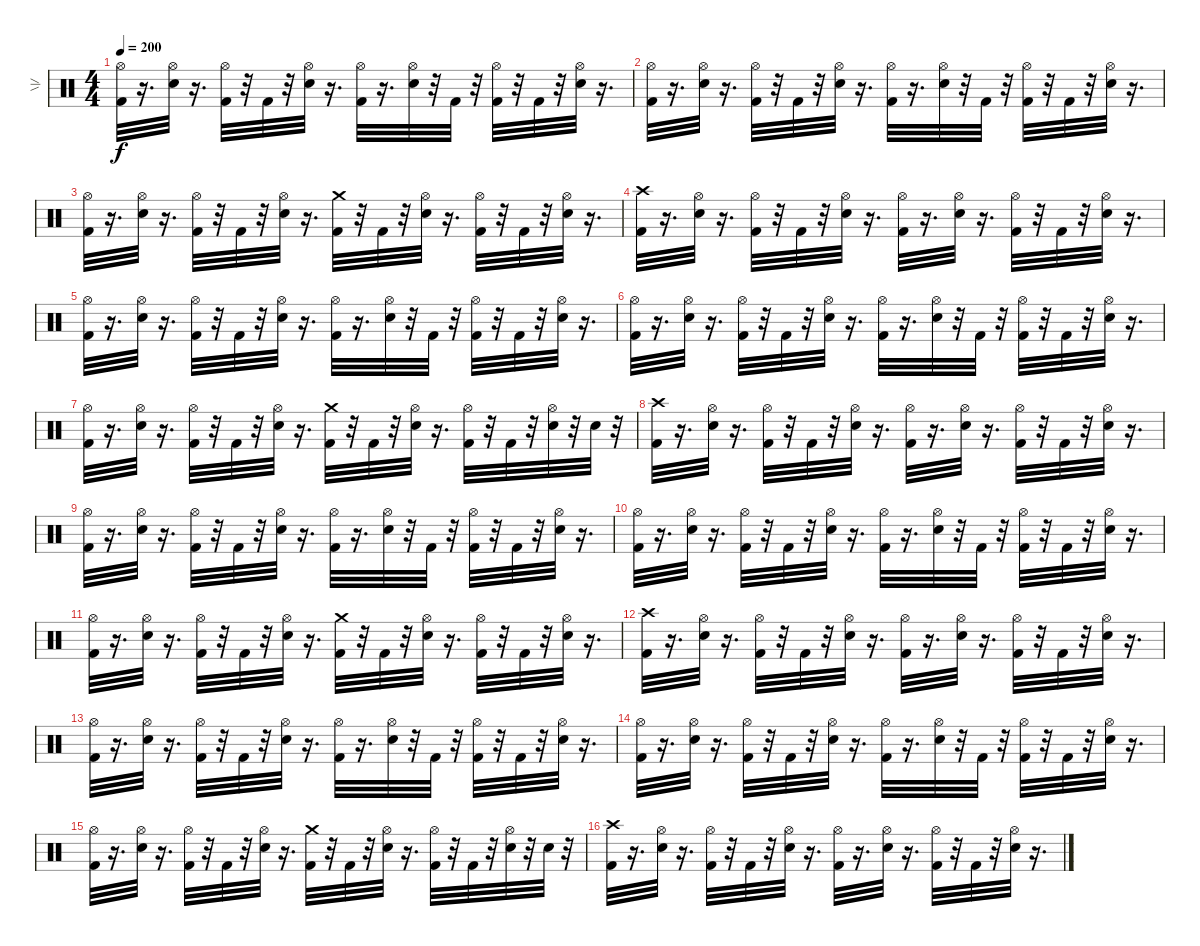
\track ("  \\|/" "  \\|/") {instrument percussion}
\staff {score}
\articulation defaults
\ts (4 4)
\tempo 200
\clef neutral
\ks c
("Hi-Hat (open)" "Kick (hit) 2").32{dy f} r.16{d} ("Hi-Hat (open)" "Snare (hit) 2").32 r.16{d} ("Hi-Hat (open)" "Kick (hit) 2").32 r.32 "Kick (hit) 2".32 r.32 ("Hi-Hat (open)" "Snare (hit) 2").32 r.16{d} ("Hi-Hat (open)" "Kick (hit) 2").32 r.16{d} ("Hi-Hat (open)" "Snare (hit) 2").32 r.32 "Kick (hit) 2".32 r.32 ("Hi-Hat (open)" "Kick (hit) 2").32 r.32 "Kick (hit) 2".32 r.32 ("Snare (hit) 2" "Hi-Hat (open)").32 r.16{d} |
("Hi-Hat (open)" "Kick (hit) 2").32 r.16{d} ("Snare (hit) 2" "Hi-Hat (open)").32 r.16{d} ("Kick (hit) 2" "Hi-Hat (open)").32 r.32 "Kick (hit) 2".32 r.32 ("Hi-Hat (open)" "Snare (hit) 2").32 r.16{d} ("Kick (hit) 2" "Hi-Hat (open)").32 r.16{d} ("Snare (hit) 2" "Hi-Hat (open)").32 r.32 "Kick (hit) 2".32 r.32 ("Hi-Hat (open)" "Kick (hit) 2").32 r.32 "Kick (hit) 2".32 r.32 ("Snare (hit) 2" "Hi-Hat (open)").32 r.16{d} |
("Kick (hit) 2" "Hi-Hat (open)").32 r.16{d} ("Hi-Hat (open)" "Snare (hit) 2").32 r.16{d} ("Kick (hit) 2" "Hi-Hat (open)").32 r.32 "Kick (hit) 2".32 r.32 ("Snare (hit) 2" "Hi-Hat (open)").32 r.16{d} ("Crash medium (hit)" "Kick (hit) 2").32 r.32 "Kick (hit) 2".32 r.32 ("Hi-Hat (open)" "Snare (hit) 2").32 r.16{d} ("Hi-Hat (open)" "Kick (hit) 2").32 r.32 "Kick (hit) 2".32 r.32 ("Snare (hit) 2" "Hi-Hat (open)").32 r.16{d} |
("Crash high (hit)" "Kick (hit) 2").32 r.16{d} ("Snare (hit) 2" "Hi-Hat (open)").32 r.16{d} ("Kick (hit) 2" "Hi-Hat (open)").32 r.32 "Kick (hit) 2".32 r.32 ("Hi-Hat (open)" "Snare (hit) 2").32 r.16{d} ("Kick (hit) 2" "Hi-Hat (open)").32 r.16{d} ("Hi-Hat (open)" "Snare (hit) 2").32 r.16{d} ("Kick (hit) 2" "Hi-Hat (open)").32 r.32 "Kick (hit) 2".32 r.32 ("Snare (hit) 2" "Hi-Hat (open)").32 r.16{d} |
("Hi-Hat (open)" "Kick (hit) 2").32 r.16{d} ("Snare (hit) 2" "Hi-Hat (open)").32 r.16{d} ("Hi-Hat (open)" "Kick (hit) 2").32 r.32 "Kick (hit) 2".32 r.32 ("Snare (hit) 2" "Hi-Hat (open)").32 r.16{d} ("Hi-Hat (open)" "Kick (hit) 2").32 r.16{d} ("Snare (hit) 2" "Hi-Hat (open)").32 r.32 "Kick (hit) 2".32 r.32 ("Kick (hit) 2" "Hi-Hat (open)").32 r.32 "Kick (hit) 2".32 r.32 ("Hi-Hat (open)" "Snare (hit) 2").32 r.16{d} |
("Hi-Hat (open)" "Kick (hit) 2").32 r.16{d} ("Hi-Hat (open)" "Snare (hit) 2").32 r.16{d} ("Hi-Hat (open)" "Kick (hit) 2").32 r.32 "Kick (hit) 2".32 r.32 ("Hi-Hat (open)" "Snare (hit) 2").32 r.16{d} ("Kick (hit) 2" "Hi-Hat (open)").32 r.16{d} ("Hi-Hat (open)" "Snare (hit) 2").32 r.32 "Kick (hit) 2".32 r.32 ("Hi-Hat (open)" "Kick (hit) 2").32 r.32 "Kick (hit) 2".32 r.32 ("Snare (hit) 2" "Hi-Hat (open)").32 r.16{d} |
("Hi-Hat (open)" "Kick (hit) 2").32 r.16{d} ("Snare (hit) 2" "Hi-Hat (open)").32 r.16{d} ("Hi-Hat (open)" "Kick (hit) 2").32 r.32 "Kick (hit) 2".32 r.32 ("Snare (hit) 2" "Hi-Hat (open)").32 r.16{d} ("Crash medium (hit)" "Kick (hit) 2").32 r.32 "Kick (hit) 2".32 r.32 ("Hi-Hat (open)" "Snare (hit) 2").32 r.16{d} ("Kick (hit) 2" "Hi-Hat (open)").32 r.32 "Kick (hit) 2".32 r.32 ("Snare (hit) 2" "Hi-Hat (open)").32 r.32 "Snare (hit) 2".32 r.32 |
\section ("" "")
("Kick (hit) 2" "Crash high (hit)").32 r.16{d} ("Snare (hit) 2" "Hi-Hat (open)").32 r.16{d} ("Kick (hit) 2" "Hi-Hat (open)").32 r.32 "Kick (hit) 2".32 r.32 ("Hi-Hat (open)" "Snare (hit) 2").32 r.16{d} ("Kick (hit) 2" "Hi-Hat (open)").32 r.16{d} ("Snare (hit) 2" "Hi-Hat (open)").32 r.16{d} ("Kick (hit) 2" "Hi-Hat (open)").32 r.32 "Kick (hit) 2".32 r.32 ("Snare (hit) 2" "Hi-Hat (open)").32 r.16{d} |
("Hi-Hat (open)" "Kick (hit) 2").32 r.16{d} ("Hi-Hat (open)" "Snare (hit) 2").32 r.16{d} ("Hi-Hat (open)" "Kick (hit) 2").32 r.32 "Kick (hit) 2".32 r.32 ("Hi-Hat (open)" "Snare (hit) 2").32 r.16{d} ("Hi-Hat (open)" "Kick (hit) 2").32 r.16{d} ("Hi-Hat (open)" "Snare (hit) 2").32 r.32 "Kick (hit) 2".32 r.32 ("Hi-Hat (open)" "Kick (hit) 2").32 r.32 "Kick (hit) 2".32 r.32 ("Snare (hit) 2" "Hi-Hat (open)").32 r.16{d} |
("Hi-Hat (open)" "Kick (hit) 2").32 r.16{d} ("Snare (hit) 2" "Hi-Hat (open)").32 r.16{d} ("Kick (hit) 2" "Hi-Hat (open)").32 r.32 "Kick (hit) 2".32 r.32 ("Hi-Hat (open)" "Snare (hit) 2").32 r.16{d} ("Kick (hit) 2" "Hi-Hat (open)").32 r.16{d} ("Snare (hit) 2" "Hi-Hat (open)").32 r.32 "Kick (hit) 2".32 r.32 ("Hi-Hat (open)" "Kick (hit) 2").32 r.32 "Kick (hit) 2".32 r.32 ("Snare (hit) 2" "Hi-Hat (open)").32 r.16{d} |
("Kick (hit) 2" "Hi-Hat (open)").32 r.16{d} ("Hi-Hat (open)" "Snare (hit) 2").32 r.16{d} ("Kick (hit) 2" "Hi-Hat (open)").32 r.32 "Kick (hit) 2".32 r.32 ("Snare (hit) 2" "Hi-Hat (open)").32 r.16{d} ("Crash medium (hit)" "Kick (hit) 2").32 r.32 "Kick (hit) 2".32 r.32 ("Hi-Hat (open)" "Snare (hit) 2").32 r.16{d} ("Hi-Hat (open)" "Kick (hit) 2").32 r.32 "Kick (hit) 2".32 r.32 ("Snare (hit) 2" "Hi-Hat (open)").32 r.16{d} |
("Crash high (hit)" "Kick (hit) 2").32 r.16{d} ("Snare (hit) 2" "Hi-Hat (open)").32 r.16{d} ("Kick (hit) 2" "Hi-Hat (open)").32 r.32 "Kick (hit) 2".32 r.32 ("Hi-Hat (open)" "Snare (hit) 2").32 r.16{d} ("Kick (hit) 2" "Hi-Hat (open)").32 r.16{d} ("Hi-Hat (open)" "Snare (hit) 2").32 r.16{d} ("Kick (hit) 2" "Hi-Hat (open)").32 r.32 "Kick (hit) 2".32 r.32 ("Snare (hit) 2" "Hi-Hat (open)").32 r.16{d} |
("Hi-Hat (open)" "Kick (hit) 2").32 r.16{d} ("Snare (hit) 2" "Hi-Hat (open)").32 r.16{d} ("Hi-Hat (open)" "Kick (hit) 2").32 r.32 "Kick (hit) 2".32 r.32 ("Snare (hit) 2" "Hi-Hat (open)").32 r.16{d} ("Hi-Hat (open)" "Kick (hit) 2").32 r.16{d} ("Snare (hit) 2" "Hi-Hat (open)").32 r.32 "Kick (hit) 2".32 r.32 ("Kick (hit) 2" "Hi-Hat (open)").32 r.32 "Kick (hit) 2".32 r.32 ("Hi-Hat (open)" "Snare (hit) 2").32 r.16{d} |
("Hi-Hat (open)" "Kick (hit) 2").32 r.16{d} ("Hi-Hat (open)" "Snare (hit) 2").32 r.16{d} ("Hi-Hat (open)" "Kick (hit) 2").32 r.32 "Kick (hit) 2".32 r.32 ("Hi-Hat (open)" "Snare (hit) 2").32 r.16{d} ("Kick (hit) 2" "Hi-Hat (open)").32 r.16{d} ("Hi-Hat (open)" "Snare (hit) 2").32 r.32 "Kick (hit) 2".32 r.32 ("Hi-Hat (open)" "Kick (hit) 2").32 r.32 "Kick (hit) 2".32 r.32 ("Snare (hit) 2" "Hi-Hat (open)").32 r.16{d} |
("Hi-Hat (open)" "Kick (hit) 2").32 r.16{d} ("Snare (hit) 2" "Hi-Hat (open)").32 r.16{d} ("Hi-Hat (open)" "Kick (hit) 2").32 r.32 "Kick (hit) 2".32 r.32 ("Snare (hit) 2" "Hi-Hat (open)").32 r.16{d} ("Crash medium (hit)" "Kick (hit) 2").32 r.32 "Kick (hit) 2".32 r.32 ("Hi-Hat (open)" "Snare (hit) 2").32 r.16{d} ("Kick (hit) 2" "Hi-Hat (open)").32 r.32 "Kick (hit) 2".32 r.32 ("Snare (hit) 2" "Hi-Hat (open)").32 r.32 "Snare (hit) 2".32 r.32 |
\section ("" "")
("Kick (hit) 2" "Crash high (hit)").32 r.16{d} ("Snare (hit) 2" "Hi-Hat (open)").32 r.16{d} ("Kick (hit) 2" "Hi-Hat (open)").32 r.32 "Kick (hit) 2".32 r.32 ("Hi-Hat (open)" "Snare (hit) 2").32 r.16{d} ("Kick (hit) 2" "Hi-Hat (open)").32 r.16{d} ("Snare (hit) 2" "Hi-Hat (open)").32 r.16{d} ("Kick (hit) 2" "Hi-Hat (open)").32 r.32 "Kick (hit) 2".32 r.32 ("Snare (hit) 2" "Hi-Hat (open)").32 r.16{d}
